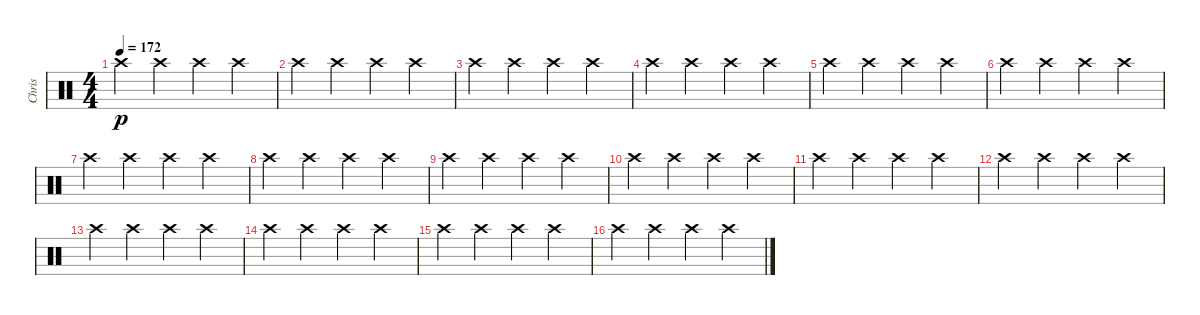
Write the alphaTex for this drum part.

\track ("Chris" "Chris") {instrument percussion}
\staff {score}
\articulation defaults
\ts (4 4)
\tempo 172
\clef neutral
\ks c "Crash high (hit)".4{dy p} "Crash high (hit)".4 "Crash high (hit)".4 "Crash high (hit)".4
|
"Crash high (hit)".4 "Crash high (hit)".4 "Crash high (hit)".4 "Crash high (hit)".4 |
"Crash high (hit)".4 "Crash high (hit)".4 "Crash high (hit)".4 "Crash high (hit)".4 |
"Crash high (hit)".4 "Crash high (hit)".4 "Crash high (hit)".4 "Crash high (hit)".4 |
"Crash high (hit)".4 "Crash high (hit)".4 "Crash high (hit)".4 "Crash high (hit)".4 |
"Crash high (hit)".4 "Crash high (hit)".4 "Crash high (hit)".4 "Crash high (hit)".4 |
"Crash high (hit)".4 "Crash high (hit)".4 "Crash high (hit)".4 "Crash high (hit)".4 |
"Crash high (hit)".4 "Crash high (hit)".4 "Crash high (hit)".4 "Crash high (hit)".4 |
"Crash high (hit)".4 "Crash high (hit)".4 "Crash high (hit)".4 "Crash high (hit)".4 |
"Crash high (hit)".4 "Crash high (hit)".4 "Crash high (hit)".4 "Crash high (hit)".4 |
"Crash high (hit)".4 "Crash high (hit)".4 "Crash high (hit)".4 "Crash high (hit)".4 |
"Crash high (hit)".4 "Crash high (hit)".4 "Crash high (hit)".4 "Crash high (hit)".4 |
"Crash high (hit)".4 "Crash high (hit)".4 "Crash high (hit)".4 "Crash high (hit)".4 |
"Crash high (hit)".4 "Crash high (hit)".4 "Crash high (hit)".4 "Crash high (hit)".4 |
"Crash high (hit)".4 "Crash high (hit)".4 "Crash high (hit)".4 "Crash high (hit)".4 |
"Crash high (hit)".4 "Crash high (hit)".4 "Crash high (hit)".4 "Crash high (hit)".4
